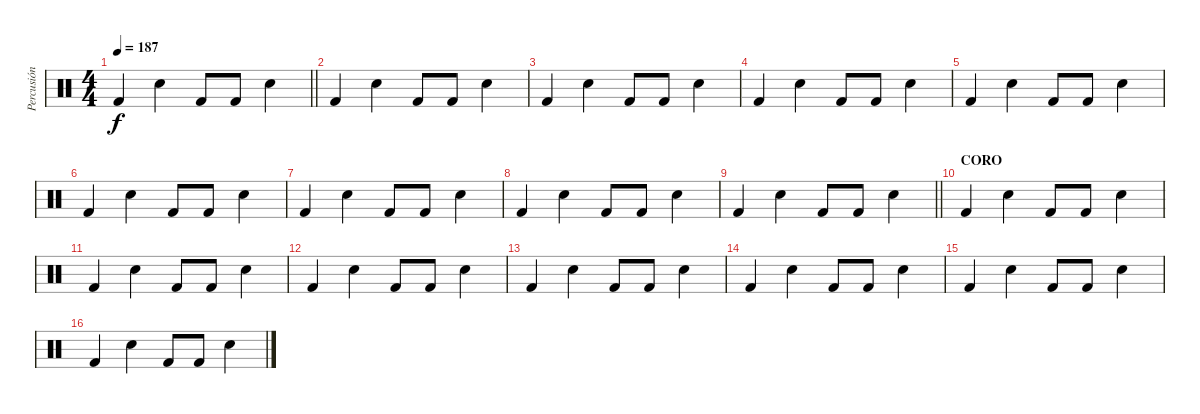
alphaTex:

\track ("Percusión" "Percusión") {instrument percussion}
\staff {score}
\articulation defaults
\ts (4 4)
\tempo 187
\clef neutral
\barLineRight lightlight
\ks c "Kick (hit) 2".4{dy f} "Snare (hit) 2".4 "Kick (hit) 2".8 "Kick (hit) 2".8 "Snare (hit) 2".4
|
"Kick (hit) 2".4 "Snare (hit) 2".4 "Kick (hit) 2".8 "Kick (hit) 2".8 "Snare (hit) 2".4 |
"Kick (hit) 2".4 "Snare (hit) 2".4 "Kick (hit) 2".8 "Kick (hit) 2".8 "Snare (hit) 2".4 |
"Kick (hit) 2".4 "Snare (hit) 2".4 "Kick (hit) 2".8 "Kick (hit) 2".8 "Snare (hit) 2".4 |
"Kick (hit) 2".4 "Snare (hit) 2".4 "Kick (hit) 2".8 "Kick (hit) 2".8 "Snare (hit) 2".4 |
"Kick (hit) 2".4 "Snare (hit) 2".4 "Kick (hit) 2".8 "Kick (hit) 2".8 "Snare (hit) 2".4 |
"Kick (hit) 2".4 "Snare (hit) 2".4 "Kick (hit) 2".8 "Kick (hit) 2".8 "Snare (hit) 2".4 |
"Kick (hit) 2".4 "Snare (hit) 2".4 "Kick (hit) 2".8 "Kick (hit) 2".8 "Snare (hit) 2".4 |
\barLineRight lightlight "Kick (hit) 2".4 "Snare (hit) 2".4 "Kick (hit) 2".8 "Kick (hit) 2".8 "Snare (hit) 2".4
|
\section ("" "CORO")
"Kick (hit) 2".4 "Snare (hit) 2".4 "Kick (hit) 2".8 "Kick (hit) 2".8 "Snare (hit) 2".4 |
"Kick (hit) 2".4 "Snare (hit) 2".4 "Kick (hit) 2".8 "Kick (hit) 2".8 "Snare (hit) 2".4 |
"Kick (hit) 2".4 "Snare (hit) 2".4 "Kick (hit) 2".8 "Kick (hit) 2".8 "Snare (hit) 2".4 |
"Kick (hit) 2".4 "Snare (hit) 2".4 "Kick (hit) 2".8 "Kick (hit) 2".8 "Snare (hit) 2".4 |
"Kick (hit) 2".4 "Snare (hit) 2".4 "Kick (hit) 2".8 "Kick (hit) 2".8 "Snare (hit) 2".4 |
"Kick (hit) 2".4 "Snare (hit) 2".4 "Kick (hit) 2".8 "Kick (hit) 2".8 "Snare (hit) 2".4 |
"Kick (hit) 2".4 "Snare (hit) 2".4 "Kick (hit) 2".8 "Kick (hit) 2".8 "Snare (hit) 2".4
